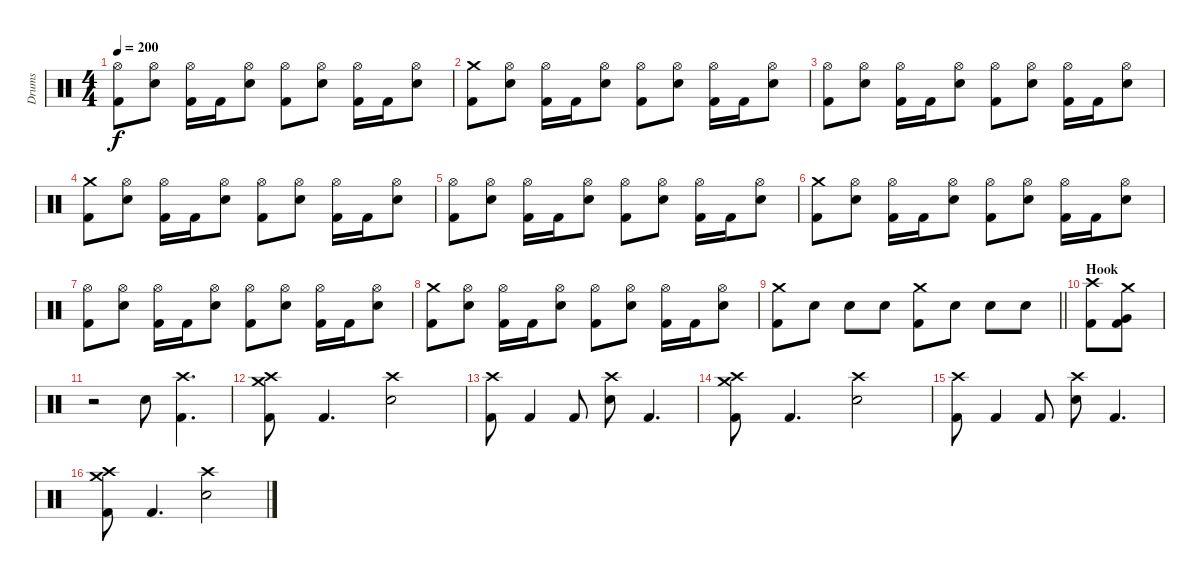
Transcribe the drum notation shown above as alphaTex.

\track ("Drums" "Drums") {instrument percussion}
\staff {score}
\articulation defaults
\ts (4 4)
\tempo 200
\clef neutral
\ks c
("Hi-Hat (open)" "Kick (hit) 2").8{dy f} ("Hi-Hat (open)" "Electric Snare (hit)").8 ("Hi-Hat (open)" "Kick (hit) 2").16 "Kick (hit) 2".16 ("Hi-Hat (open)" "Electric Snare (hit)").8 ("Hi-Hat (open)" "Kick (hit) 2").8 ("Hi-Hat (open)" "Electric Snare (hit)").8 ("Hi-Hat (open)" "Kick (hit) 2").16 "Kick (hit) 2".16 ("Hi-Hat (open)" "Electric Snare (hit)").8 |
("Crash medium (hit)" "Kick (hit) 2").8 ("Hi-Hat (open)" "Electric Snare (hit)").8 ("Hi-Hat (open)" "Kick (hit) 2").16 "Kick (hit) 2".16 ("Hi-Hat (open)" "Electric Snare (hit)").8 ("Hi-Hat (open)" "Kick (hit) 2").8 ("Hi-Hat (open)" "Electric Snare (hit)").8 ("Hi-Hat (open)" "Kick (hit) 2").16 "Kick (hit) 2".16 ("Hi-Hat (open)" "Electric Snare (hit)").8 |
("Hi-Hat (open)" "Kick (hit) 2").8 ("Hi-Hat (open)" "Electric Snare (hit)").8 ("Hi-Hat (open)" "Kick (hit) 2").16 "Kick (hit) 2".16 ("Hi-Hat (open)" "Electric Snare (hit)").8 ("Hi-Hat (open)" "Kick (hit) 2").8 ("Hi-Hat (open)" "Electric Snare (hit)").8 ("Hi-Hat (open)" "Kick (hit) 2").16 "Kick (hit) 2".16 ("Hi-Hat (open)" "Electric Snare (hit)").8 |
("Crash medium (hit)" "Kick (hit) 2").8 ("Hi-Hat (open)" "Electric Snare (hit)").8 ("Hi-Hat (open)" "Kick (hit) 2").16 "Kick (hit) 2".16 ("Hi-Hat (open)" "Electric Snare (hit)").8 ("Hi-Hat (open)" "Kick (hit) 2").8 ("Hi-Hat (open)" "Electric Snare (hit)").8 ("Hi-Hat (open)" "Kick (hit) 2").16 "Kick (hit) 2".16 ("Hi-Hat (open)" "Electric Snare (hit)").8 |
("Hi-Hat (open)" "Kick (hit) 2").8 ("Hi-Hat (open)" "Electric Snare (hit)").8 ("Hi-Hat (open)" "Kick (hit) 2").16 "Kick (hit) 2".16 ("Hi-Hat (open)" "Electric Snare (hit)").8 ("Hi-Hat (open)" "Kick (hit) 2").8 ("Hi-Hat (open)" "Electric Snare (hit)").8 ("Hi-Hat (open)" "Kick (hit) 2").16 "Kick (hit) 2".16 ("Hi-Hat (open)" "Electric Snare (hit)").8 |
("Crash medium (hit)" "Kick (hit) 2").8 ("Hi-Hat (open)" "Electric Snare (hit)").8 ("Hi-Hat (open)" "Kick (hit) 2").16 "Kick (hit) 2".16 ("Hi-Hat (open)" "Electric Snare (hit)").8 ("Hi-Hat (open)" "Kick (hit) 2").8 ("Hi-Hat (open)" "Electric Snare (hit)").8 ("Hi-Hat (open)" "Kick (hit) 2").16 "Kick (hit) 2".16 ("Hi-Hat (open)" "Electric Snare (hit)").8 |
("Hi-Hat (open)" "Kick (hit) 2").8 ("Hi-Hat (open)" "Electric Snare (hit)").8 ("Hi-Hat (open)" "Kick (hit) 2").16 "Kick (hit) 2".16 ("Hi-Hat (open)" "Electric Snare (hit)").8 ("Hi-Hat (open)" "Kick (hit) 2").8 ("Hi-Hat (open)" "Electric Snare (hit)").8 ("Hi-Hat (open)" "Kick (hit) 2").16 "Kick (hit) 2".16 ("Hi-Hat (open)" "Electric Snare (hit)").8 |
("Crash medium (hit)" "Kick (hit) 2").8 ("Hi-Hat (open)" "Electric Snare (hit)").8 ("Hi-Hat (open)" "Kick (hit) 2").16 "Kick (hit) 2".16 ("Hi-Hat (open)" "Electric Snare (hit)").8 ("Hi-Hat (open)" "Kick (hit) 2").8 ("Hi-Hat (open)" "Electric Snare (hit)").8 ("Hi-Hat (open)" "Kick (hit) 2").16 "Kick (hit) 2".16 ("Hi-Hat (open)" "Electric Snare (hit)").8 |
\barLineRight lightlight
("Crash medium (hit)" "Kick (hit) 2").8 "Electric Snare (hit)".8 "Electric Snare (hit)".8 "Electric Snare (hit)".8 ("Crash medium (hit)" "Kick (hit) 2").8 "Electric Snare (hit)".8 "Electric Snare (hit)".8 "Electric Snare (hit)".8 |
\section ("" "Hook")
("Crash high (hit)" "Kick (hit) 2").8 ("Crash medium (hit)" "Very Low Tom (hit)" "Kick (hit) 2").8 |
r.2 "Electric Snare (hit)".8 ("Crash high (hit)" "Kick (hit) 2").4{d} |
("Crash medium (hit)" "Crash high (hit)" "Kick (hit) 2").8 "Kick (hit) 2".4{d} ("Crash high (hit)" "Electric Snare (hit)").2 |
("Crash high (hit)" "Kick (hit) 2").8 "Kick (hit) 2".4 "Kick (hit) 2".8 ("Crash high (hit)" "Electric Snare (hit)").8 "Kick (hit) 2".4{d} |
("Crash medium (hit)" "Crash high (hit)" "Kick (hit) 2").8 "Kick (hit) 2".4{d} ("Crash high (hit)" "Electric Snare (hit)").2 |
("Crash high (hit)" "Kick (hit) 2").8 "Kick (hit) 2".4 "Kick (hit) 2".8 ("Crash high (hit)" "Electric Snare (hit)").8 "Kick (hit) 2".4{d} |
("Crash medium (hit)" "Crash high (hit)" "Kick (hit) 2").8 "Kick (hit) 2".4{d} ("Crash high (hit)" "Electric Snare (hit)").2
